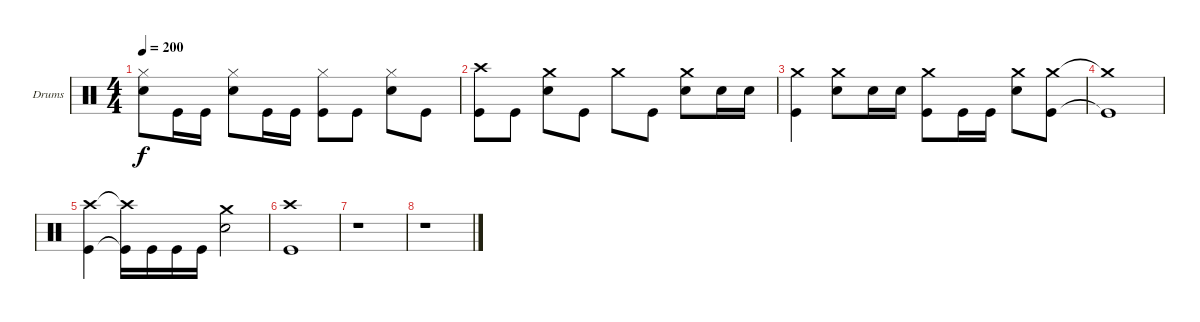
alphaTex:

\bracketExtendMode groupsimilarinstruments
\firstSystemTrackNameOrientation horizontal
\otherSystemsTrackNameOrientation horizontal
\track ("Emile Bardou" "Drums") {instrument percussion}
\staff {score}
\articulation defaults
\ts (4 4)
\tempo 200
\clef neutral
\ks c
("Snare (hit) 2" "Hi-Hat (closed)").8{dy f} "Kick (hit)".16 "Kick (hit)".16 ("Snare (hit) 2" "Hi-Hat (closed)").8 "Kick (hit)".16 "Kick (hit)".16 ("Kick (hit)" "Hi-Hat (closed)").8 "Kick (hit)".8 ("Hi-Hat (closed)" "Snare (hit) 2").8 "Kick (hit)".8 |
("Kick (hit)" "Crash high (hit)").8 "Kick (hit)".8 ("Crash medium (hit)" "Snare (hit) 2").8 "Kick (hit)".8 "Crash medium (hit)".8 "Kick (hit)".8 ("Crash medium (hit)" "Snare (hit) 2").8 "Snare (hit) 2".16 "Snare (hit) 2".16 |
("Crash medium (hit)" "Kick (hit)").4 ("Crash medium (hit)" "Snare (hit) 2").8 "Snare (hit) 2".16 "Snare (hit) 2".16 ("Crash medium (hit)" "Kick (hit)").8 "Kick (hit)".16 "Kick (hit)".16 ("Crash medium (hit)" "Snare (hit) 2").8 ("Crash medium (hit)" "Kick (hit)").8 |
("Crash medium (hit)"{t} "Kick (hit)"{t}).1 |
("Kick (hit)" "Crash high (hit)").4 ("Kick (hit)"{t} "Crash high (hit)"{t}).16 "Kick (hit)".16 "Kick (hit)".16 "Kick (hit)".16 ("Crash medium (hit)" "Snare (hit) 2").2 |
("Kick (hit)" "Crash high (hit)").1 |
r.1 |
r.1
